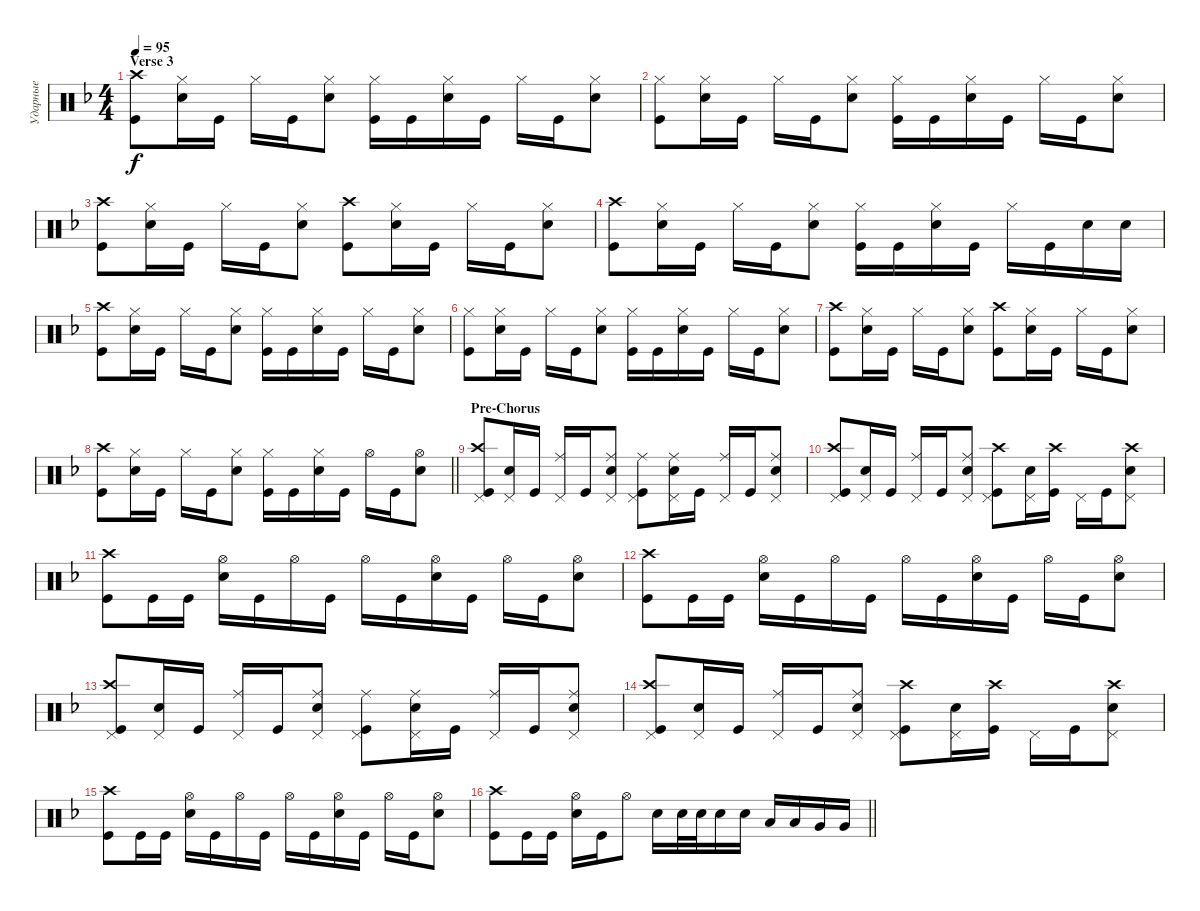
\track ("Ударные" "Ударные") {instrument percussion}
\staff {score}
\articulation defaults
\ts (4 4)
\section ("" "Verse 3")
\tempo 95
\clef neutral
\ks dminor
("Kick (hit)" "Crash high (hit)").8{dy f} ("Snare (hit) 2" "Hi-Hat (closed)").16 "Kick (hit)".16 "Hi-Hat (closed)".16 "Kick (hit)".16 ("Snare (hit) 2" "Hi-Hat (closed)").8 ("Kick (hit)" "Hi-Hat (closed)").16 "Kick (hit)".16 ("Snare (hit) 2" "Hi-Hat (closed)").16 "Kick (hit)".16 "Hi-Hat (closed)".16 "Kick (hit)".16 ("Snare (hit) 2" "Hi-Hat (closed)").8 |
("Kick (hit)" "Hi-Hat (closed)").8 ("Snare (hit) 2" "Hi-Hat (closed)").16 "Kick (hit)".16 "Hi-Hat (closed)".16 "Kick (hit)".16 ("Snare (hit) 2" "Hi-Hat (closed)").8 ("Kick (hit)" "Hi-Hat (closed)").16 "Kick (hit)".16 ("Snare (hit) 2" "Hi-Hat (closed)").16 "Kick (hit)".16 "Hi-Hat (closed)".16 "Kick (hit)".16 ("Snare (hit) 2" "Hi-Hat (closed)").8 |
("Kick (hit)" "Crash high (hit)").8 ("Snare (hit) 2" "Hi-Hat (closed)").16 "Kick (hit)".16 "Hi-Hat (closed)".16 "Kick (hit)".16 ("Snare (hit) 2" "Hi-Hat (closed)").8 ("Kick (hit)" "Crash high (hit)").8 ("Snare (hit) 2" "Hi-Hat (closed)").16 "Kick (hit)".16 "Hi-Hat (closed)".16 "Kick (hit)".16 ("Snare (hit) 2" "Hi-Hat (closed)").8 |
("Kick (hit)" "Crash high (hit)").8 ("Snare (hit) 2" "Hi-Hat (closed)").16 "Kick (hit)".16 "Hi-Hat (closed)".16 "Kick (hit)".16 ("Snare (hit) 2" "Hi-Hat (closed)").8 ("Kick (hit)" "Hi-Hat (closed)").16 "Kick (hit)".16 ("Snare (hit) 2" "Hi-Hat (closed)").16 "Kick (hit)".16 "Hi-Hat (closed)".16 "Kick (hit)".16 "Snare (hit) 2".16 "Snare (hit) 2".16 |
("Kick (hit)" "Crash high (hit)").8 ("Snare (hit) 2" "Hi-Hat (closed)").16 "Kick (hit)".16 "Hi-Hat (closed)".16 "Kick (hit)".16 ("Snare (hit) 2" "Hi-Hat (closed)").8 ("Kick (hit)" "Hi-Hat (closed)").16 "Kick (hit)".16 ("Snare (hit) 2" "Hi-Hat (closed)").16 "Kick (hit)".16 "Hi-Hat (closed)".16 "Kick (hit)".16 ("Snare (hit) 2" "Hi-Hat (closed)").8 |
("Kick (hit)" "Hi-Hat (closed)").8 ("Snare (hit) 2" "Hi-Hat (closed)").16 "Kick (hit)".16 "Hi-Hat (closed)".16 "Kick (hit)".16 ("Snare (hit) 2" "Hi-Hat (closed)").8 ("Kick (hit)" "Hi-Hat (closed)").16 "Kick (hit)".16 ("Snare (hit) 2" "Hi-Hat (closed)").16 "Kick (hit)".16 "Hi-Hat (closed)".16 "Kick (hit)".16 ("Snare (hit) 2" "Hi-Hat (closed)").8 |
("Kick (hit)" "Crash high (hit)").8 ("Snare (hit) 2" "Hi-Hat (closed)").16 "Kick (hit)".16 "Hi-Hat (closed)".16 "Kick (hit)".16 ("Snare (hit) 2" "Hi-Hat (closed)").8 ("Kick (hit)" "Crash high (hit)").8 ("Snare (hit) 2" "Hi-Hat (closed)").16 "Kick (hit)".16 "Hi-Hat (closed)".16 "Kick (hit)".16 ("Snare (hit) 2" "Hi-Hat (closed)").8 |
\barLineRight lightlight
("Kick (hit)" "Crash high (hit)").8 ("Snare (hit) 2" "Hi-Hat (closed)").16 "Kick (hit)".16 "Hi-Hat (closed)".16 "Kick (hit)".16 ("Snare (hit) 2" "Hi-Hat (closed)").8 ("Kick (hit)" "Hi-Hat (closed)").16 "Kick (hit)".16 ("Snare (hit) 2" "Hi-Hat (closed)").16 "Kick (hit)".16 "Hi-Hat (open)".16 "Kick (hit)".16 ("Snare (hit) 2" "Hi-Hat (open)").8 |
\section ("" "Pre-Chorus")
("Kick (hit)" "Crash high (hit)" "Pedal Hi-Hat (hit)").8 ("Snare (hit) 2" "Pedal Hi-Hat (hit)").16 "Kick (hit)".16 ("Pedal Hi-Hat (hit)" "Ride (middle)").16 "Kick (hit)".16 ("Snare (hit) 2" "Pedal Hi-Hat (hit)" "Ride (middle)").8 ("Kick (hit)" "Pedal Hi-Hat (hit)" "Ride (middle)").8 ("Snare (hit) 2" "Pedal Hi-Hat (hit)" "Ride (middle)").16 "Kick (hit)".16 ("Pedal Hi-Hat (hit)" "Ride (middle)").16 "Kick (hit)".16 ("Snare (hit) 2" "Pedal Hi-Hat (hit)" "Ride (middle)").8 |
("Kick (hit)" "Crash high (hit)" "Pedal Hi-Hat (hit)").8 ("Snare (hit) 2" "Pedal Hi-Hat (hit)").16 "Kick (hit)".16 ("Pedal Hi-Hat (hit)" "Ride (middle)").16 "Kick (hit)".16 ("Snare (hit) 2" "Pedal Hi-Hat (hit)" "Ride (middle)").8 ("Kick (hit)" "Pedal Hi-Hat (hit)" "Crash high (hit)").8 ("Snare (hit) 2" "Pedal Hi-Hat (hit)").16 ("Kick (hit)" "Crash high (hit)").16 "Pedal Hi-Hat (hit)".16 "Kick (hit)".16 ("Snare (hit) 2" "Pedal Hi-Hat (hit)" "Crash high (hit)").8 |
("Kick (hit)" "Crash high (hit)").8 "Kick (hit)".16 "Kick (hit)".16 ("Snare (hit) 2" "Hi-Hat (open)").16 "Kick (hit)".16 "Hi-Hat (open)".16 "Kick (hit)".16 "Hi-Hat (open)".16 "Kick (hit)".16 ("Snare (hit) 2" "Hi-Hat (open)").16 "Kick (hit)".16 "Hi-Hat (open)".16 "Kick (hit)".16 ("Snare (hit) 2" "Hi-Hat (open)").8 |
("Kick (hit)" "Crash high (hit)").8 "Kick (hit)".16 "Kick (hit)".16 ("Snare (hit) 2" "Hi-Hat (open)").16 "Kick (hit)".16 "Hi-Hat (open)".16 "Kick (hit)".16 "Hi-Hat (open)".16 "Kick (hit)".16 ("Snare (hit) 2" "Hi-Hat (open)").16 "Kick (hit)".16 "Hi-Hat (open)".16 "Kick (hit)".16 ("Snare (hit) 2" "Hi-Hat (open)").8 |
("Kick (hit)" "Crash high (hit)" "Pedal Hi-Hat (hit)").8 ("Snare (hit) 2" "Pedal Hi-Hat (hit)").16 "Kick (hit)".16 ("Pedal Hi-Hat (hit)" "Ride (middle)").16 "Kick (hit)".16 ("Snare (hit) 2" "Pedal Hi-Hat (hit)" "Ride (middle)").8 ("Kick (hit)" "Pedal Hi-Hat (hit)" "Ride (middle)").8 ("Snare (hit) 2" "Pedal Hi-Hat (hit)" "Ride (middle)").16 "Kick (hit)".16 ("Pedal Hi-Hat (hit)" "Ride (middle)").16 "Kick (hit)".16 ("Snare (hit) 2" "Pedal Hi-Hat (hit)" "Ride (middle)").8 |
("Kick (hit)" "Crash high (hit)" "Pedal Hi-Hat (hit)").8 ("Snare (hit) 2" "Pedal Hi-Hat (hit)").16 "Kick (hit)".16 ("Pedal Hi-Hat (hit)" "Ride (middle)").16 "Kick (hit)".16 ("Snare (hit) 2" "Pedal Hi-Hat (hit)" "Ride (middle)").8 ("Kick (hit)" "Pedal Hi-Hat (hit)" "Crash high (hit)").8 ("Snare (hit) 2" "Pedal Hi-Hat (hit)").16 ("Kick (hit)" "Crash high (hit)").16 "Pedal Hi-Hat (hit)".16 "Kick (hit)".16 ("Snare (hit) 2" "Pedal Hi-Hat (hit)" "Crash high (hit)").8 |
("Kick (hit)" "Crash high (hit)").8 "Kick (hit)".16 "Kick (hit)".16 ("Snare (hit) 2" "Hi-Hat (open)").16 "Kick (hit)".16 "Hi-Hat (open)".16 "Kick (hit)".16 "Hi-Hat (open)".16 "Kick (hit)".16 ("Snare (hit) 2" "Hi-Hat (open)").16 "Kick (hit)".16 "Hi-Hat (open)".16 "Kick (hit)".16 ("Snare (hit) 2" "Hi-Hat (open)").8 |
\barLineRight lightlight
("Kick (hit)" "Crash high (hit)").8 "Kick (hit)".16 "Kick (hit)".16 ("Snare (hit) 2" "Hi-Hat (open)").16 "Kick (hit)".16 "Hi-Hat (open)".8 "Snare (hit) 2".16 "Snare (hit) 2".32 "Snare (hit) 2".32 "Snare (hit) 2".16 "Snare (hit) 2".16 "Low Tom (hit)".16 "Low Tom (hit)".16 "Very Low Tom (hit)".16 "Very Low Tom (hit)".16
